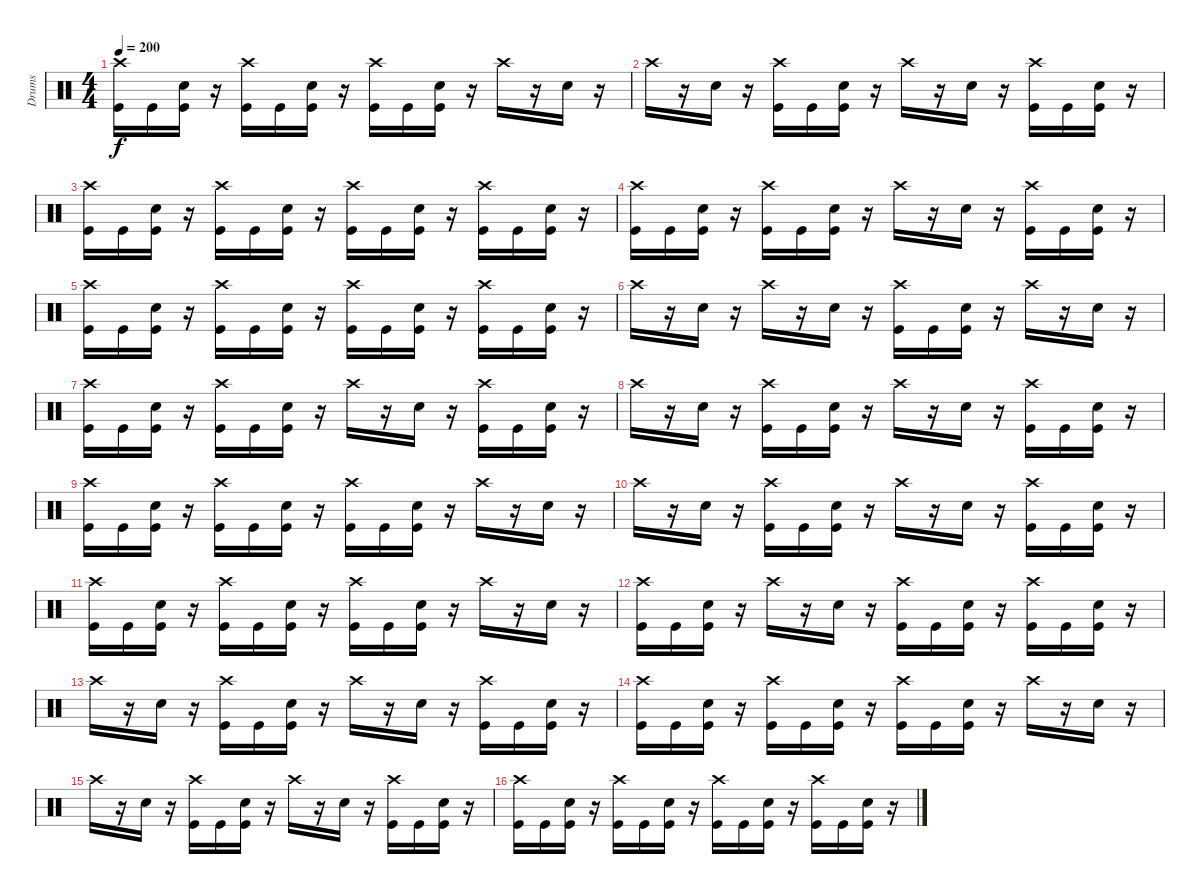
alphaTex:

\track ("Drums" "Drums") {instrument percussion}
\staff {score}
\articulation defaults
\ts (4 4)
\tempo 200
\clef neutral
\ks c
("Crash high (hit)" "Kick (hit)").16{dy f} "Kick (hit)".16 ("Snare (hit) 2" "Kick (hit)").16 r.16 ("Crash high (hit)" "Kick (hit)").16 "Kick (hit)".16 ("Snare (hit) 2" "Kick (hit)").16 r.16 ("Crash high (hit)" "Kick (hit)").16 "Kick (hit)".16 ("Snare (hit) 2" "Kick (hit)").16 r.16 "Crash high (hit)".16 r.16 "Snare (hit) 2".16 r.16 |
"Crash high (hit)".16 r.16 "Snare (hit) 2".16 r.16 ("Crash high (hit)" "Kick (hit)").16 "Kick (hit)".16 ("Snare (hit) 2" "Kick (hit)").16 r.16 "Crash high (hit)".16 r.16 "Snare (hit) 2".16 r.16 ("Crash high (hit)" "Kick (hit)").16 "Kick (hit)".16 ("Snare (hit) 2" "Kick (hit)").16 r.16 |
("Crash high (hit)" "Kick (hit)").16 "Kick (hit)".16 ("Snare (hit) 2" "Kick (hit)").16 r.16 ("Crash high (hit)" "Kick (hit)").16 "Kick (hit)".16 ("Snare (hit) 2" "Kick (hit)").16 r.16 ("Crash high (hit)" "Kick (hit)").16 "Kick (hit)".16 ("Snare (hit) 2" "Kick (hit)").16 r.16 ("Crash high (hit)" "Kick (hit)").16 "Kick (hit)".16 ("Snare (hit) 2" "Kick (hit)").16 r.16 |
("Crash high (hit)" "Kick (hit)").16 "Kick (hit)".16 ("Snare (hit) 2" "Kick (hit)").16 r.16 ("Crash high (hit)" "Kick (hit)").16 "Kick (hit)".16 ("Snare (hit) 2" "Kick (hit)").16 r.16 "Crash high (hit)".16 r.16 "Snare (hit) 2".16 r.16 ("Crash high (hit)" "Kick (hit)").16 "Kick (hit)".16 ("Snare (hit) 2" "Kick (hit)").16 r.16 |
("Crash high (hit)" "Kick (hit)").16 "Kick (hit)".16 ("Snare (hit) 2" "Kick (hit)").16 r.16 ("Crash high (hit)" "Kick (hit)").16 "Kick (hit)".16 ("Snare (hit) 2" "Kick (hit)").16 r.16 ("Crash high (hit)" "Kick (hit)").16 "Kick (hit)".16 ("Snare (hit) 2" "Kick (hit)").16 r.16 ("Crash high (hit)" "Kick (hit)").16 "Kick (hit)".16 ("Snare (hit) 2" "Kick (hit)").16 r.16 |
"Crash high (hit)".16 r.16 "Snare (hit) 2".16 r.16 "Crash high (hit)".16 r.16 "Snare (hit) 2".16 r.16 ("Crash high (hit)" "Kick (hit)").16 "Kick (hit)".16 ("Snare (hit) 2" "Kick (hit)").16 r.16 "Crash high (hit)".16 r.16 "Snare (hit) 2".16 r.16 |
("Crash high (hit)" "Kick (hit)").16 "Kick (hit)".16 ("Snare (hit) 2" "Kick (hit)").16 r.16 ("Crash high (hit)" "Kick (hit)").16 "Kick (hit)".16 ("Snare (hit) 2" "Kick (hit)").16 r.16 "Crash high (hit)".16 r.16 "Snare (hit) 2".16 r.16 ("Crash high (hit)" "Kick (hit)").16 "Kick (hit)".16 ("Snare (hit) 2" "Kick (hit)").16 r.16 |
"Crash high (hit)".16 r.16 "Snare (hit) 2".16 r.16 ("Crash high (hit)" "Kick (hit)").16 "Kick (hit)".16 ("Snare (hit) 2" "Kick (hit)").16 r.16 "Crash high (hit)".16 r.16 "Snare (hit) 2".16 r.16 ("Crash high (hit)" "Kick (hit)").16 "Kick (hit)".16 ("Snare (hit) 2" "Kick (hit)").16 r.16 |
("Crash high (hit)" "Kick (hit)").16 "Kick (hit)".16 ("Snare (hit) 2" "Kick (hit)").16 r.16 ("Crash high (hit)" "Kick (hit)").16 "Kick (hit)".16 ("Snare (hit) 2" "Kick (hit)").16 r.16 ("Crash high (hit)" "Kick (hit)").16 "Kick (hit)".16 ("Snare (hit) 2" "Kick (hit)").16 r.16 "Crash high (hit)".16 r.16 "Snare (hit) 2".16 r.16 |
"Crash high (hit)".16 r.16 "Snare (hit) 2".16 r.16 ("Crash high (hit)" "Kick (hit)").16 "Kick (hit)".16 ("Snare (hit) 2" "Kick (hit)").16 r.16 "Crash high (hit)".16 r.16 "Snare (hit) 2".16 r.16 ("Crash high (hit)" "Kick (hit)").16 "Kick (hit)".16 ("Snare (hit) 2" "Kick (hit)").16 r.16 |
("Crash high (hit)" "Kick (hit)").16 "Kick (hit)".16 ("Snare (hit) 2" "Kick (hit)").16 r.16 ("Crash high (hit)" "Kick (hit)").16 "Kick (hit)".16 ("Snare (hit) 2" "Kick (hit)").16 r.16 ("Crash high (hit)" "Kick (hit)").16 "Kick (hit)".16 ("Snare (hit) 2" "Kick (hit)").16 r.16 "Crash high (hit)".16 r.16 "Snare (hit) 2".16 r.16 |
("Crash high (hit)" "Kick (hit)").16 "Kick (hit)".16 ("Snare (hit) 2" "Kick (hit)").16 r.16 "Crash high (hit)".16 r.16 "Snare (hit) 2".16 r.16 ("Crash high (hit)" "Kick (hit)").16 "Kick (hit)".16 ("Snare (hit) 2" "Kick (hit)").16 r.16 ("Crash high (hit)" "Kick (hit)").16 "Kick (hit)".16 ("Snare (hit) 2" "Kick (hit)").16 r.16 |
"Crash high (hit)".16 r.16 "Snare (hit) 2".16 r.16 ("Crash high (hit)" "Kick (hit)").16 "Kick (hit)".16 ("Snare (hit) 2" "Kick (hit)").16 r.16 "Crash high (hit)".16 r.16 "Snare (hit) 2".16 r.16 ("Crash high (hit)" "Kick (hit)").16 "Kick (hit)".16 ("Snare (hit) 2" "Kick (hit)").16 r.16 |
("Crash high (hit)" "Kick (hit)").16 "Kick (hit)".16 ("Snare (hit) 2" "Kick (hit)").16 r.16 ("Crash high (hit)" "Kick (hit)").16 "Kick (hit)".16 ("Snare (hit) 2" "Kick (hit)").16 r.16 ("Crash high (hit)" "Kick (hit)").16 "Kick (hit)".16 ("Snare (hit) 2" "Kick (hit)").16 r.16 "Crash high (hit)".16 r.16 "Snare (hit) 2".16 r.16 |
"Crash high (hit)".16 r.16 "Snare (hit) 2".16 r.16 ("Crash high (hit)" "Kick (hit)").16 "Kick (hit)".16 ("Snare (hit) 2" "Kick (hit)").16 r.16 "Crash high (hit)".16 r.16 "Snare (hit) 2".16 r.16 ("Crash high (hit)" "Kick (hit)").16 "Kick (hit)".16 ("Snare (hit) 2" "Kick (hit)").16 r.16 |
("Crash high (hit)" "Kick (hit)").16 "Kick (hit)".16 ("Snare (hit) 2" "Kick (hit)").16 r.16 ("Crash high (hit)" "Kick (hit)").16 "Kick (hit)".16 ("Snare (hit) 2" "Kick (hit)").16 r.16 ("Crash high (hit)" "Kick (hit)").16 "Kick (hit)".16 ("Snare (hit) 2" "Kick (hit)").16 r.16 ("Crash high (hit)" "Kick (hit)").16 "Kick (hit)".16 ("Snare (hit) 2" "Kick (hit)").16 r.16
